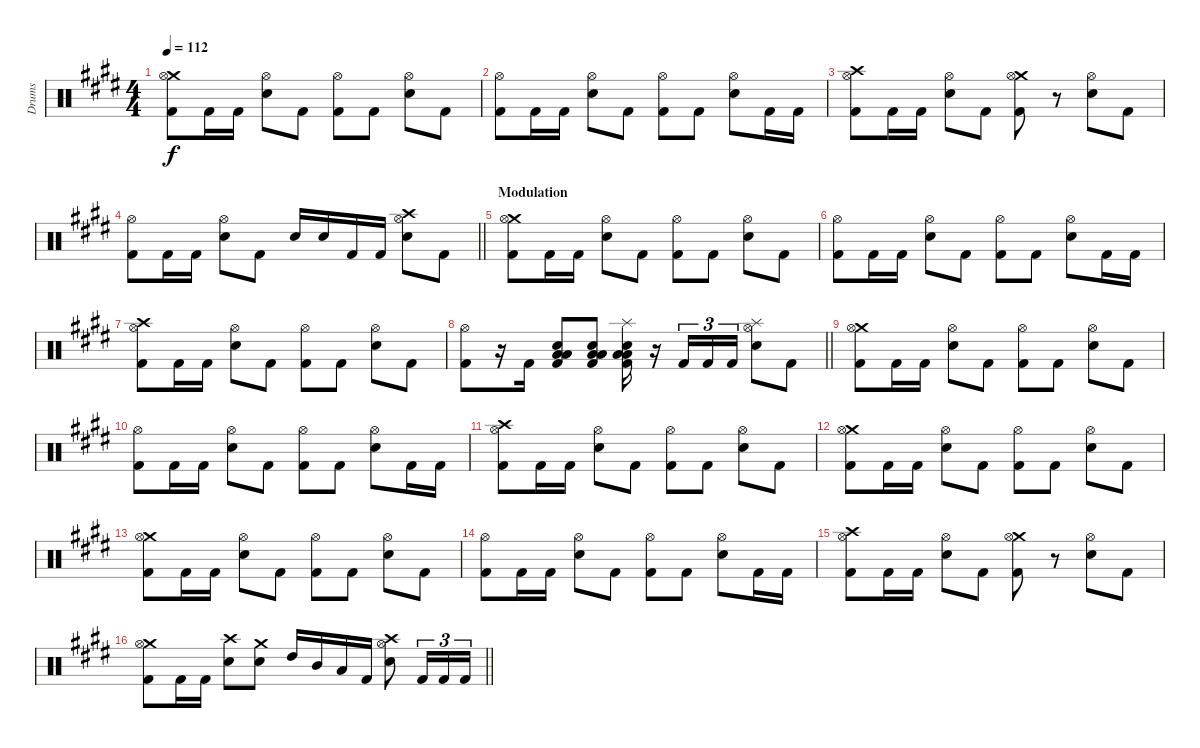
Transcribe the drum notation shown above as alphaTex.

\track ("Drums" "Drums") {instrument percussion}
\staff {score}
\articulation defaults
\ts (4 4)
\tempo 112
\clef neutral
\ks c#minor
("Crash medium (hit)" "Hi-Hat (open)" "Kick (hit) 2").8{dy f} "Kick (hit) 2".16 "Kick (hit) 2".16 ("Hi-Hat (open)" "Electric Snare (hit)").8 "Kick (hit) 2".8 ("Hi-Hat (open)" "Kick (hit) 2").8 "Kick (hit) 2".8 ("Hi-Hat (open)" "Electric Snare (hit)").8 "Kick (hit) 2".8 |
("Hi-Hat (open)" "Kick (hit) 2").8 "Kick (hit) 2".16 "Kick (hit) 2".16 ("Hi-Hat (open)" "Electric Snare (hit)").8 "Kick (hit) 2".8 ("Hi-Hat (open)" "Kick (hit) 2").8 "Kick (hit) 2".8 ("Hi-Hat (open)" "Electric Snare (hit)").8 "Kick (hit) 2".16 "Kick (hit) 2".16 |
("Crash high (hit)" "Hi-Hat (open)" "Kick (hit) 2").8 "Kick (hit) 2".16 "Kick (hit) 2".16 ("Hi-Hat (open)" "Electric Snare (hit)").8 "Kick (hit) 2".8 ("Crash medium (hit)" "Hi-Hat (open)" "Kick (hit) 2").8 r.8 ("Hi-Hat (open)" "Electric Snare (hit)").8 "Kick (hit) 2".8 |
\barLineRight lightlight
("Hi-Hat (open)" "Kick (hit) 2").8 "Kick (hit) 2".16 "Kick (hit) 2".16 ("Hi-Hat (open)" "Electric Snare (hit)").8 "Kick (hit) 2".8 "Electric Snare (hit)".16 "Electric Snare (hit)".16 "Kick (hit) 2".16 "Kick (hit) 2".16 ("Crash high (hit)" "Hi-Hat (open)" "Electric Snare (hit)").8 "Kick (hit) 2".8 |
\section ("" "Modulation")
("Crash medium (hit)" "Hi-Hat (open)" "Kick (hit) 2").8 "Kick (hit) 2".16 "Kick (hit) 2".16 ("Hi-Hat (open)" "Electric Snare (hit)").8 "Kick (hit) 2".8 ("Hi-Hat (open)" "Kick (hit) 2").8 "Kick (hit) 2".8 ("Hi-Hat (open)" "Electric Snare (hit)").8 "Kick (hit) 2".8 |
("Hi-Hat (open)" "Kick (hit) 2").8 "Kick (hit) 2".16 "Kick (hit) 2".16 ("Hi-Hat (open)" "Electric Snare (hit)").8 "Kick (hit) 2".8 ("Hi-Hat (open)" "Kick (hit) 2").8 "Kick (hit) 2".8 ("Hi-Hat (open)" "Electric Snare (hit)").8 "Kick (hit) 2".16 "Kick (hit) 2".16 |
("Crash high (hit)" "Hi-Hat (open)" "Kick (hit) 2").8 "Kick (hit) 2".16 "Kick (hit) 2".16 ("Hi-Hat (open)" "Electric Snare (hit)").8 "Kick (hit) 2".8 ("Hi-Hat (open)" "Kick (hit) 2").8 "Kick (hit) 2".8 ("Hi-Hat (open)" "Electric Snare (hit)").8 "Kick (hit) 2".8 |
\barLineRight lightlight
("Hi-Hat (open)" "Kick (hit) 2").8 r.16 "Kick (hit) 2".16 ("Low Tom (hit)" "Low Floor Tom (hit)" "Electric Snare (hit)" "Kick (hit) 2").8 ("Low Tom (hit)" "Low Floor Tom (hit)" "Electric Snare (hit)" "Kick (hit) 2").8 ("Splash (hit)" "Low Tom (hit)" "Low Floor Tom (hit)" "Electric Snare (hit)" "Kick (hit) 2").16 r.16 "Kick (hit) 2".16{tu (3 2)} "Kick (hit) 2".16{tu (3 2)} "Kick (hit) 2".16{tu (3 2)} ("Splash (hit)" "Hi-Hat (open)" "Electric Snare (hit)").8 "Kick (hit) 2".8 |
\section ("" "")
("Crash medium (hit)" "Hi-Hat (open)" "Kick (hit) 2").8 "Kick (hit) 2".16 "Kick (hit) 2".16 ("Hi-Hat (open)" "Electric Snare (hit)").8 "Kick (hit) 2".8 ("Hi-Hat (open)" "Kick (hit) 2").8 "Kick (hit) 2".8 ("Hi-Hat (open)" "Electric Snare (hit)").8 "Kick (hit) 2".8 |
("Hi-Hat (open)" "Kick (hit) 2").8 "Kick (hit) 2".16 "Kick (hit) 2".16 ("Hi-Hat (open)" "Electric Snare (hit)").8 "Kick (hit) 2".8 ("Hi-Hat (open)" "Kick (hit) 2").8 "Kick (hit) 2".8 ("Hi-Hat (open)" "Electric Snare (hit)").8 "Kick (hit) 2".16 "Kick (hit) 2".16 |
("Crash high (hit)" "Hi-Hat (open)" "Kick (hit) 2").8 "Kick (hit) 2".16 "Kick (hit) 2".16 ("Hi-Hat (open)" "Electric Snare (hit)").8 "Kick (hit) 2".8 ("Hi-Hat (open)" "Kick (hit) 2").8 "Kick (hit) 2".8 ("Hi-Hat (open)" "Electric Snare (hit)").8 "Kick (hit) 2".8 |
("Crash medium (hit)" "Hi-Hat (open)" "Kick (hit) 2").8 "Kick (hit) 2".16 "Kick (hit) 2".16 ("Hi-Hat (open)" "Electric Snare (hit)").8 "Kick (hit) 2".8 ("Hi-Hat (open)" "Kick (hit) 2").8 "Kick (hit) 2".8 ("Hi-Hat (open)" "Electric Snare (hit)").8 "Kick (hit) 2".8 |
("Crash medium (hit)" "Hi-Hat (open)" "Kick (hit) 2").8 "Kick (hit) 2".16 "Kick (hit) 2".16 ("Hi-Hat (open)" "Electric Snare (hit)").8 "Kick (hit) 2".8 ("Hi-Hat (open)" "Kick (hit) 2").8 "Kick (hit) 2".8 ("Hi-Hat (open)" "Electric Snare (hit)").8 "Kick (hit) 2".8 |
("Hi-Hat (open)" "Kick (hit) 2").8 "Kick (hit) 2".16 "Kick (hit) 2".16 ("Hi-Hat (open)" "Electric Snare (hit)").8 "Kick (hit) 2".8 ("Hi-Hat (open)" "Kick (hit) 2").8 "Kick (hit) 2".8 ("Hi-Hat (open)" "Electric Snare (hit)").8 "Kick (hit) 2".16 "Kick (hit) 2".16 |
("Crash high (hit)" "Hi-Hat (open)" "Kick (hit) 2").8 "Kick (hit) 2".16 "Kick (hit) 2".16 ("Hi-Hat (open)" "Electric Snare (hit)").8 "Kick (hit) 2".8 ("Crash medium (hit)" "Hi-Hat (open)" "Kick (hit) 2").8 r.8 ("Hi-Hat (open)" "Electric Snare (hit)").8 "Kick (hit) 2".8 |
\barLineRight lightlight
("Crash medium (hit)" "Hi-Hat (open)" "Kick (hit) 2").8 "Kick (hit) 2".16 "Kick (hit) 2".16 ("Crash high (hit)" "Electric Snare (hit)").8 ("Crash medium (hit)" "Electric Snare (hit)").8 "High Tom (hit)".16 "Mid Tom (hit)".16 "Low Tom (hit)".16 "Kick (hit) 2".16 ("Crash high (hit)" "Hi-Hat (open)" "Electric Snare (hit)").8 "Kick (hit) 2".16{tu (3 2)} "Kick (hit) 2".16{tu (3 2)} "Kick (hit) 2".16{tu (3 2)}
